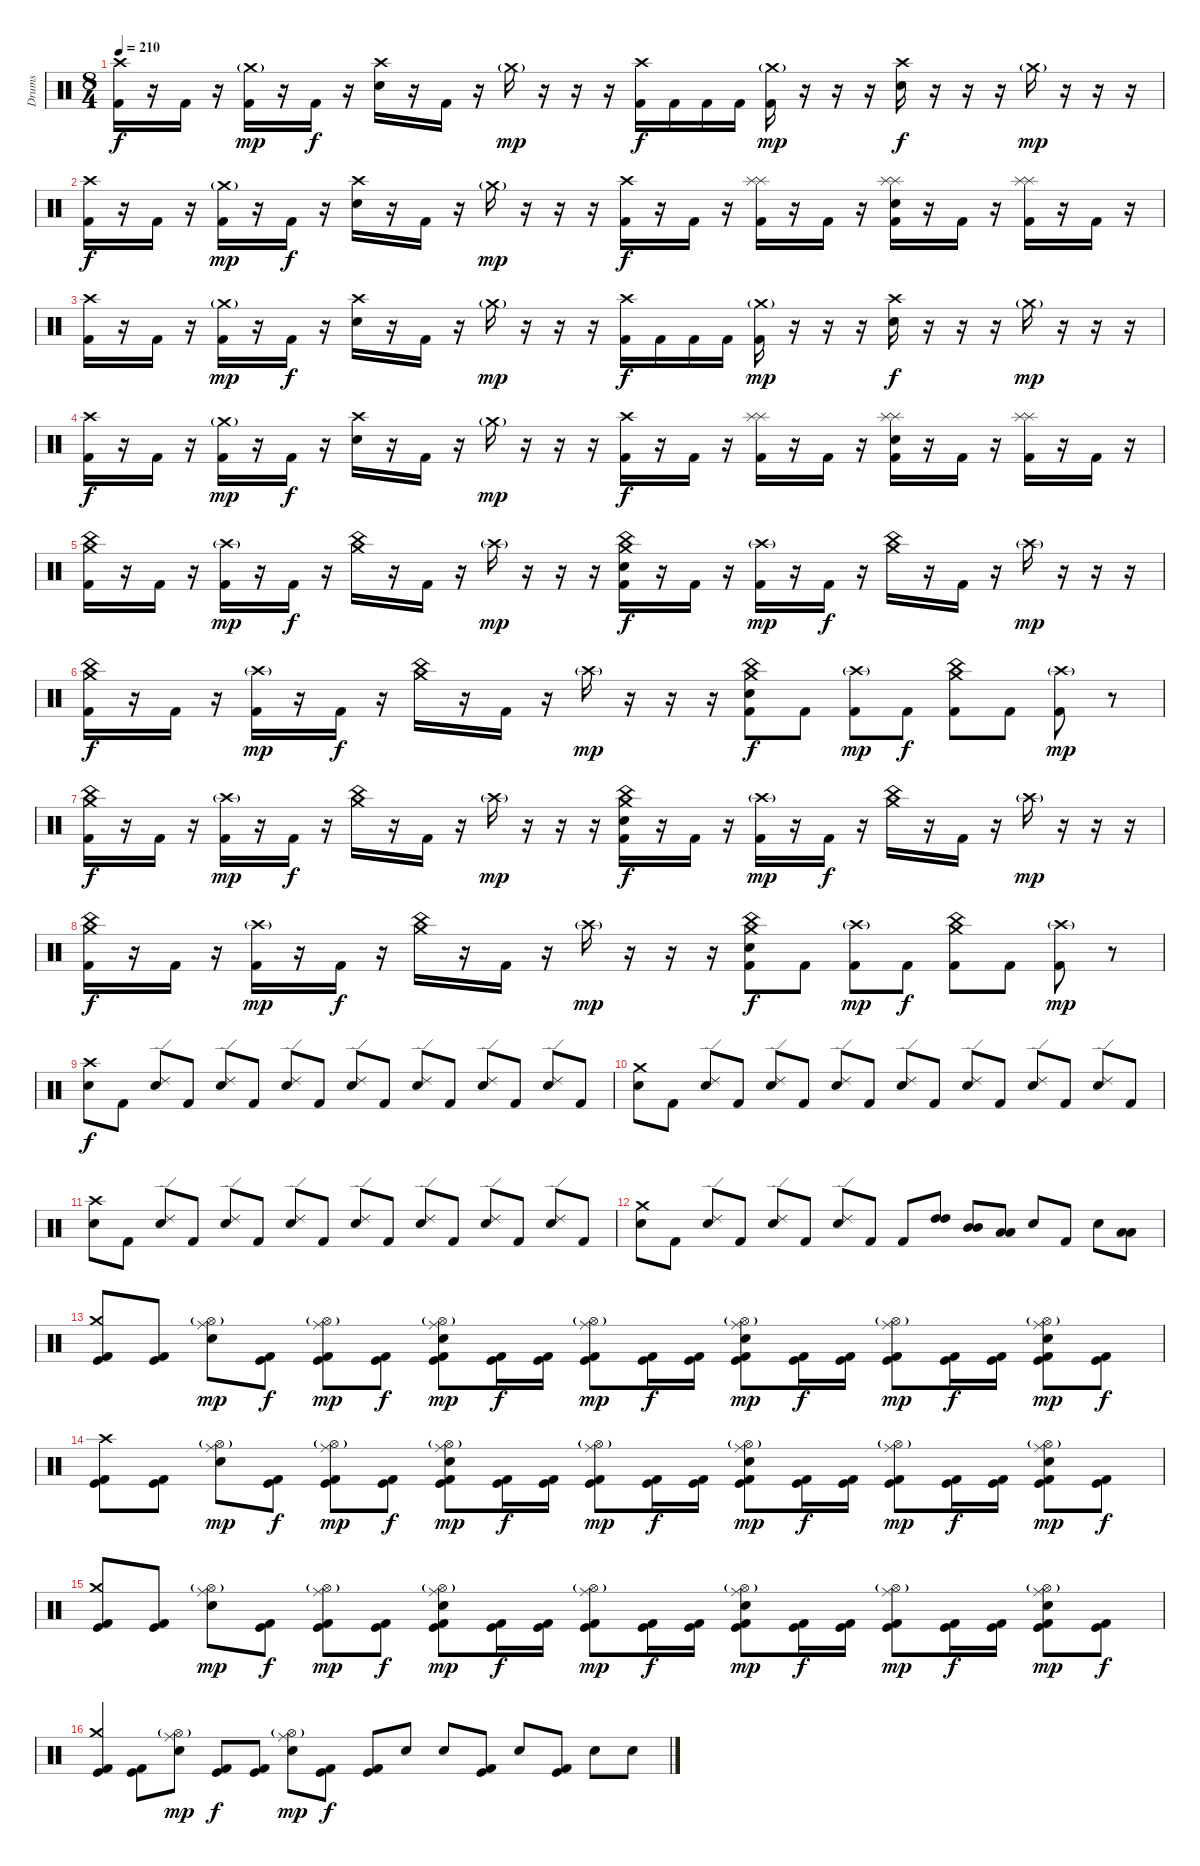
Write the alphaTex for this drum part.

\track ("Drums" "Drums") {instrument percussion}
\staff {score}
\articulation defaults
\ts (8 4)
\tempo 210
\clef neutral
\ks c
("Crash high (hit)" "Kick (hit) 2").16{dy f} r.16 "Kick (hit) 2".16 r.16 ("Crash medium (hit)"{g} "Kick (hit) 2").16{dy mp} r.16 "Kick (hit) 2".16{dy f} r.16 ("Crash high (hit)" "Electric Snare (hit)").16 r.16 "Kick (hit) 2".16 r.16 "Crash medium (hit)"{g}.16{dy mp} r.16 r.16 r.16 ("Crash high (hit)" "Kick (hit) 2").16{dy f} "Kick (hit) 2".16 "Kick (hit) 2".16 "Kick (hit) 2".16 ("Crash medium (hit)"{g} "Kick (hit) 2").16{dy mp} r.16 r.16 r.16 ("Crash high (hit)" "Electric Snare (hit)").16{dy f} r.16 r.16 r.16 "Crash medium (hit)"{g}.16{dy mp} r.16 r.16 r.16 |
("Crash high (hit)" "Kick (hit) 2").16{dy f} r.16 "Kick (hit) 2".16 r.16 ("Crash medium (hit)"{g} "Kick (hit) 2").16{dy mp} r.16 "Kick (hit) 2".16{dy f} r.16 ("Crash high (hit)" "Electric Snare (hit)").16 r.16 "Kick (hit) 2".16 r.16 "Crash medium (hit)"{g}.16{dy mp} r.16 r.16 r.16 ("Crash high (hit)" "Kick (hit) 2").16{dy f} r.16 "Kick (hit) 2".16 r.16 ("Splash (hit)" "Splash (hit)" "Kick (hit) 2").16 r.16 "Kick (hit) 2".16 r.16 ("Splash (hit)" "Splash (hit)" "Electric Snare (hit)" "Kick (hit) 2").16 r.16 "Kick (hit) 2".16 r.16 ("Splash (hit)" "Splash (hit)" "Kick (hit) 2").16 r.16 "Kick (hit) 2".16 r.16 |
("Crash high (hit)" "Kick (hit) 2").16 r.16 "Kick (hit) 2".16 r.16 ("Crash medium (hit)"{g} "Kick (hit) 2").16{dy mp} r.16 "Kick (hit) 2".16{dy f} r.16 ("Crash high (hit)" "Electric Snare (hit)").16 r.16 "Kick (hit) 2".16 r.16 "Crash medium (hit)"{g}.16{dy mp} r.16 r.16 r.16 ("Crash high (hit)" "Kick (hit) 2").16{dy f} "Kick (hit) 2".16 "Kick (hit) 2".16 "Kick (hit) 2".16 ("Crash medium (hit)"{g} "Kick (hit) 2").16{dy mp} r.16 r.16 r.16 ("Crash high (hit)" "Electric Snare (hit)").16{dy f} r.16 r.16 r.16 "Crash medium (hit)"{g}.16{dy mp} r.16 r.16 r.16 |
("Crash high (hit)" "Kick (hit) 2").16{dy f} r.16 "Kick (hit) 2".16 r.16 ("Crash medium (hit)"{g} "Kick (hit) 2").16{dy mp} r.16 "Kick (hit) 2".16{dy f} r.16 ("Crash high (hit)" "Electric Snare (hit)").16 r.16 "Kick (hit) 2".16 r.16 "Crash medium (hit)"{g}.16{dy mp} r.16 r.16 r.16 ("Crash high (hit)" "Kick (hit) 2").16{dy f} r.16 "Kick (hit) 2".16 r.16 ("Splash (hit)" "Splash (hit)" "Kick (hit) 2").16 r.16 "Kick (hit) 2".16 r.16 ("Splash (hit)" "Splash (hit)" "Electric Snare (hit)" "Kick (hit) 2").16 r.16 "Kick (hit) 2".16 r.16 ("Splash (hit)" "Splash (hit)" "Kick (hit) 2").16 r.16 "Kick (hit) 2".16 r.16 |
("China (hit)" "Crash medium (hit)" "Kick (hit) 2").16 r.16 "Kick (hit) 2".16 r.16 ("Crash high (hit)"{g} "Kick (hit) 2").16{dy mp} r.16 "Kick (hit) 2".16{dy f} r.16 ("China (hit)" "Crash medium (hit)").16 r.16 "Kick (hit) 2".16 r.16 "Crash high (hit)"{g}.16{dy mp} r.16 r.16 r.16 ("China (hit)" "Crash medium (hit)" "Electric Snare (hit)" "Kick (hit) 2").16{dy f} r.16 "Kick (hit) 2".16 r.16 ("Crash high (hit)"{g} "Kick (hit) 2").16{dy mp} r.16 "Kick (hit) 2".16{dy f} r.16 ("China (hit)" "Crash medium (hit)").16 r.16 "Kick (hit) 2".16 r.16 "Crash high (hit)"{g}.16{dy mp} r.16 r.16 r.16 |
("China (hit)" "Crash medium (hit)" "Kick (hit) 2").16{dy f} r.16 "Kick (hit) 2".16 r.16 ("Crash high (hit)"{g} "Kick (hit) 2").16{dy mp} r.16 "Kick (hit) 2".16{dy f} r.16 ("China (hit)" "Crash medium (hit)").16 r.16 "Kick (hit) 2".16 r.16 "Crash high (hit)"{g}.16{dy mp} r.16 r.16 r.16 ("China (hit)" "Crash medium (hit)" "Electric Snare (hit)" "Kick (hit) 2").8{dy f} "Kick (hit) 2".8 ("Crash high (hit)"{g} "Kick (hit) 2").8{dy mp} "Kick (hit) 2".8{dy f} ("China (hit)" "Crash medium (hit)" "Kick (hit) 2").8 "Kick (hit) 2".8 ("Crash high (hit)"{g} "Kick (hit) 2").8{dy mp} r.8 |
("China (hit)" "Crash medium (hit)" "Kick (hit) 2").16{dy f} r.16 "Kick (hit) 2".16 r.16 ("Crash high (hit)"{g} "Kick (hit) 2").16{dy mp} r.16 "Kick (hit) 2".16{dy f} r.16 ("China (hit)" "Crash medium (hit)").16 r.16 "Kick (hit) 2".16 r.16 "Crash high (hit)"{g}.16{dy mp} r.16 r.16 r.16 ("China (hit)" "Crash medium (hit)" "Electric Snare (hit)" "Kick (hit) 2").16{dy f} r.16 "Kick (hit) 2".16 r.16 ("Crash high (hit)"{g} "Kick (hit) 2").16{dy mp} r.16 "Kick (hit) 2".16{dy f} r.16 ("China (hit)" "Crash medium (hit)").16 r.16 "Kick (hit) 2".16 r.16 "Crash high (hit)"{g}.16{dy mp} r.16 r.16 r.16 |
("China (hit)" "Crash medium (hit)" "Kick (hit) 2").16{dy f} r.16 "Kick (hit) 2".16 r.16 ("Crash high (hit)"{g} "Kick (hit) 2").16{dy mp} r.16 "Kick (hit) 2".16{dy f} r.16 ("China (hit)" "Crash medium (hit)").16 r.16 "Kick (hit) 2".16 r.16 "Crash high (hit)"{g}.16{dy mp} r.16 r.16 r.16 ("China (hit)" "Crash medium (hit)" "Electric Snare (hit)" "Kick (hit) 2").8{dy f} "Kick (hit) 2".8 ("Crash high (hit)"{g} "Kick (hit) 2").8{dy mp} "Kick (hit) 2".8{dy f} ("China (hit)" "Crash medium (hit)" "Kick (hit) 2").8 "Kick (hit) 2".8 ("Crash high (hit)"{g} "Kick (hit) 2").8{dy mp} r.8 |
("Crash high (hit)" "Electric Snare (hit)").8{dy f} "Kick (hit) 2".8 ("Ride (edge) 2" "Electric Snare (hit)").8 "Kick (hit) 2".8 ("Ride (edge) 2" "Electric Snare (hit)").8 "Kick (hit) 2".8 ("Ride (edge) 2" "Electric Snare (hit)").8 "Kick (hit) 2".8 ("Ride (edge) 2" "Electric Snare (hit)").8 "Kick (hit) 2".8 ("Ride (edge) 2" "Electric Snare (hit)").8 "Kick (hit) 2".8 ("Ride (edge) 2" "Electric Snare (hit)").8 "Kick (hit) 2".8 ("Ride (edge) 2" "Electric Snare (hit)").8 "Kick (hit) 2".8 |
("Crash medium (hit)" "Electric Snare (hit)").8 "Kick (hit) 2".8 ("Ride (edge) 2" "Electric Snare (hit)").8 "Kick (hit) 2".8 ("Ride (edge) 2" "Electric Snare (hit)").8 "Kick (hit) 2".8 ("Ride (edge) 2" "Electric Snare (hit)").8 "Kick (hit) 2".8 ("Ride (edge) 2" "Electric Snare (hit)").8 "Kick (hit) 2".8 ("Ride (edge) 2" "Electric Snare (hit)").8 "Kick (hit) 2".8 ("Ride (edge) 2" "Electric Snare (hit)").8 "Kick (hit) 2".8 ("Ride (edge) 2" "Electric Snare (hit)").8 "Kick (hit) 2".8 |
("Crash high (hit)" "Electric Snare (hit)").8 "Kick (hit) 2".8 ("Ride (edge) 2" "Electric Snare (hit)").8 "Kick (hit) 2".8 ("Ride (edge) 2" "Electric Snare (hit)").8 "Kick (hit) 2".8 ("Ride (edge) 2" "Electric Snare (hit)").8 "Kick (hit) 2".8 ("Ride (edge) 2" "Electric Snare (hit)").8 "Kick (hit) 2".8 ("Ride (edge) 2" "Electric Snare (hit)").8 "Kick (hit) 2".8 ("Ride (edge) 2" "Electric Snare (hit)").8 "Kick (hit) 2".8 ("Ride (edge) 2" "Electric Snare (hit)").8 "Kick (hit) 2".8 |
("Crash medium (hit)" "Electric Snare (hit)").8 "Kick (hit) 2".8 ("Ride (edge) 2" "Electric Snare (hit)").8 "Kick (hit) 2".8 ("Ride (edge) 2" "Electric Snare (hit)").8 "Kick (hit) 2".8 ("Ride (edge) 2" "Electric Snare (hit)").8 "Kick (hit) 2".8 "Kick (hit) 2".8 ("High Tom (hit)" "High Tom (hit)").8 ("Mid Tom (hit)" "Mid Tom (hit)").8 ("Low Tom (hit)" "Low Tom (hit)").8 "Electric Snare (hit)".8 "Kick (hit) 2".8 "Electric Snare (hit)".8 ("Low Tom (hit)" "Low Tom (hit)").8 |
("Crash medium (hit)" "Kick (hit)" "Kick (hit) 2").8 ("Kick (hit)" "Kick (hit) 2").8 ("Hi-Hat (open)"{g} "Ride (middle)" "Electric Snare (hit)").8{dy mp} ("Kick (hit)" "Kick (hit) 2").8{dy f} ("Hi-Hat (open)"{g} "Ride (middle)" "Kick (hit)" "Kick (hit) 2").8{dy mp} ("Kick (hit)" "Kick (hit) 2").8{dy f} ("Hi-Hat (open)"{g} "Ride (middle)" "Electric Snare (hit)" "Kick (hit)" "Kick (hit) 2").8{dy mp} ("Kick (hit)" "Kick (hit) 2").16{dy f} ("Kick (hit)" "Kick (hit) 2").16 ("Hi-Hat (open)"{g} "Ride (middle)" "Kick (hit)" "Kick (hit) 2").8{dy mp} ("Kick (hit)" "Kick (hit) 2").16{dy f} ("Kick (hit)" "Kick (hit) 2").16 ("Hi-Hat (open)"{g} "Ride (middle)" "Electric Snare (hit)" "Kick (hit)" "Kick (hit) 2").8{dy mp} ("Kick (hit)" "Kick (hit) 2").16{dy f} ("Kick (hit)" "Kick (hit) 2").16 ("Hi-Hat (open)"{g} "Ride (middle)" "Kick (hit)" "Kick (hit) 2").8{dy mp} ("Kick (hit)" "Kick (hit) 2").16{dy f} ("Kick (hit)" "Kick (hit) 2").16 ("Hi-Hat (open)"{g} "Ride (middle)" "Electric Snare (hit)" "Kick (hit)" "Kick (hit) 2").8{dy mp} ("Kick (hit)" "Kick (hit) 2").8{dy f} |
("Crash high (hit)" "Kick (hit)" "Kick (hit) 2").8 ("Kick (hit)" "Kick (hit) 2").8 ("Hi-Hat (open)"{g} "Ride (middle)" "Electric Snare (hit)").8{dy mp} ("Kick (hit)" "Kick (hit) 2").8{dy f} ("Hi-Hat (open)"{g} "Ride (middle)" "Kick (hit)" "Kick (hit) 2").8{dy mp} ("Kick (hit)" "Kick (hit) 2").8{dy f} ("Hi-Hat (open)"{g} "Ride (middle)" "Electric Snare (hit)" "Kick (hit)" "Kick (hit) 2").8{dy mp} ("Kick (hit)" "Kick (hit) 2").16{dy f} ("Kick (hit)" "Kick (hit) 2").16 ("Hi-Hat (open)"{g} "Ride (middle)" "Kick (hit)" "Kick (hit) 2").8{dy mp} ("Kick (hit)" "Kick (hit) 2").16{dy f} ("Kick (hit)" "Kick (hit) 2").16 ("Hi-Hat (open)"{g} "Ride (middle)" "Electric Snare (hit)" "Kick (hit)" "Kick (hit) 2").8{dy mp} ("Kick (hit)" "Kick (hit) 2").16{dy f} ("Kick (hit)" "Kick (hit) 2").16 ("Hi-Hat (open)"{g} "Ride (middle)" "Kick (hit)" "Kick (hit) 2").8{dy mp} ("Kick (hit)" "Kick (hit) 2").16{dy f} ("Kick (hit)" "Kick (hit) 2").16 ("Hi-Hat (open)"{g} "Ride (middle)" "Electric Snare (hit)" "Kick (hit)" "Kick (hit) 2").8{dy mp} ("Kick (hit)" "Kick (hit) 2").8{dy f} |
("Crash medium (hit)" "Kick (hit)" "Kick (hit) 2").8 ("Kick (hit)" "Kick (hit) 2").8 ("Hi-Hat (open)"{g} "Ride (middle)" "Electric Snare (hit)").8{dy mp} ("Kick (hit)" "Kick (hit) 2").8{dy f} ("Hi-Hat (open)"{g} "Ride (middle)" "Kick (hit)" "Kick (hit) 2").8{dy mp} ("Kick (hit)" "Kick (hit) 2").8{dy f} ("Hi-Hat (open)"{g} "Ride (middle)" "Electric Snare (hit)" "Kick (hit)" "Kick (hit) 2").8{dy mp} ("Kick (hit)" "Kick (hit) 2").16{dy f} ("Kick (hit)" "Kick (hit) 2").16 ("Hi-Hat (open)"{g} "Ride (middle)" "Kick (hit)" "Kick (hit) 2").8{dy mp} ("Kick (hit)" "Kick (hit) 2").16{dy f} ("Kick (hit)" "Kick (hit) 2").16 ("Hi-Hat (open)"{g} "Ride (middle)" "Electric Snare (hit)" "Kick (hit)" "Kick (hit) 2").8{dy mp} ("Kick (hit)" "Kick (hit) 2").16{dy f} ("Kick (hit)" "Kick (hit) 2").16 ("Hi-Hat (open)"{g} "Ride (middle)" "Kick (hit)" "Kick (hit) 2").8{dy mp} ("Kick (hit)" "Kick (hit) 2").16{dy f} ("Kick (hit)" "Kick (hit) 2").16 ("Hi-Hat (open)"{g} "Ride (middle)" "Electric Snare (hit)" "Kick (hit)" "Kick (hit) 2").8{dy mp} ("Kick (hit)" "Kick (hit) 2").8{dy f} |
("Crash medium (hit)" "Kick (hit)" "Kick (hit) 2").4 ("Kick (hit)" "Kick (hit) 2").8 ("Hi-Hat (open)"{g} "Ride (middle)" "Electric Snare (hit)").8{dy mp} ("Kick (hit)" "Kick (hit) 2").8{dy f} ("Kick (hit)" "Kick (hit) 2").8 ("Hi-Hat (open)"{g} "Ride (middle)" "Electric Snare (hit)").8{dy mp} ("Kick (hit)" "Kick (hit) 2").8{dy f} ("Kick (hit)" "Kick (hit) 2").8 "Electric Snare (hit)".8 "Electric Snare (hit)".8 ("Kick (hit)" "Kick (hit) 2").8 "Electric Snare (hit)".8 ("Kick (hit)" "Kick (hit) 2").8 "Electric Snare (hit)".8 "Electric Snare (hit)".8
